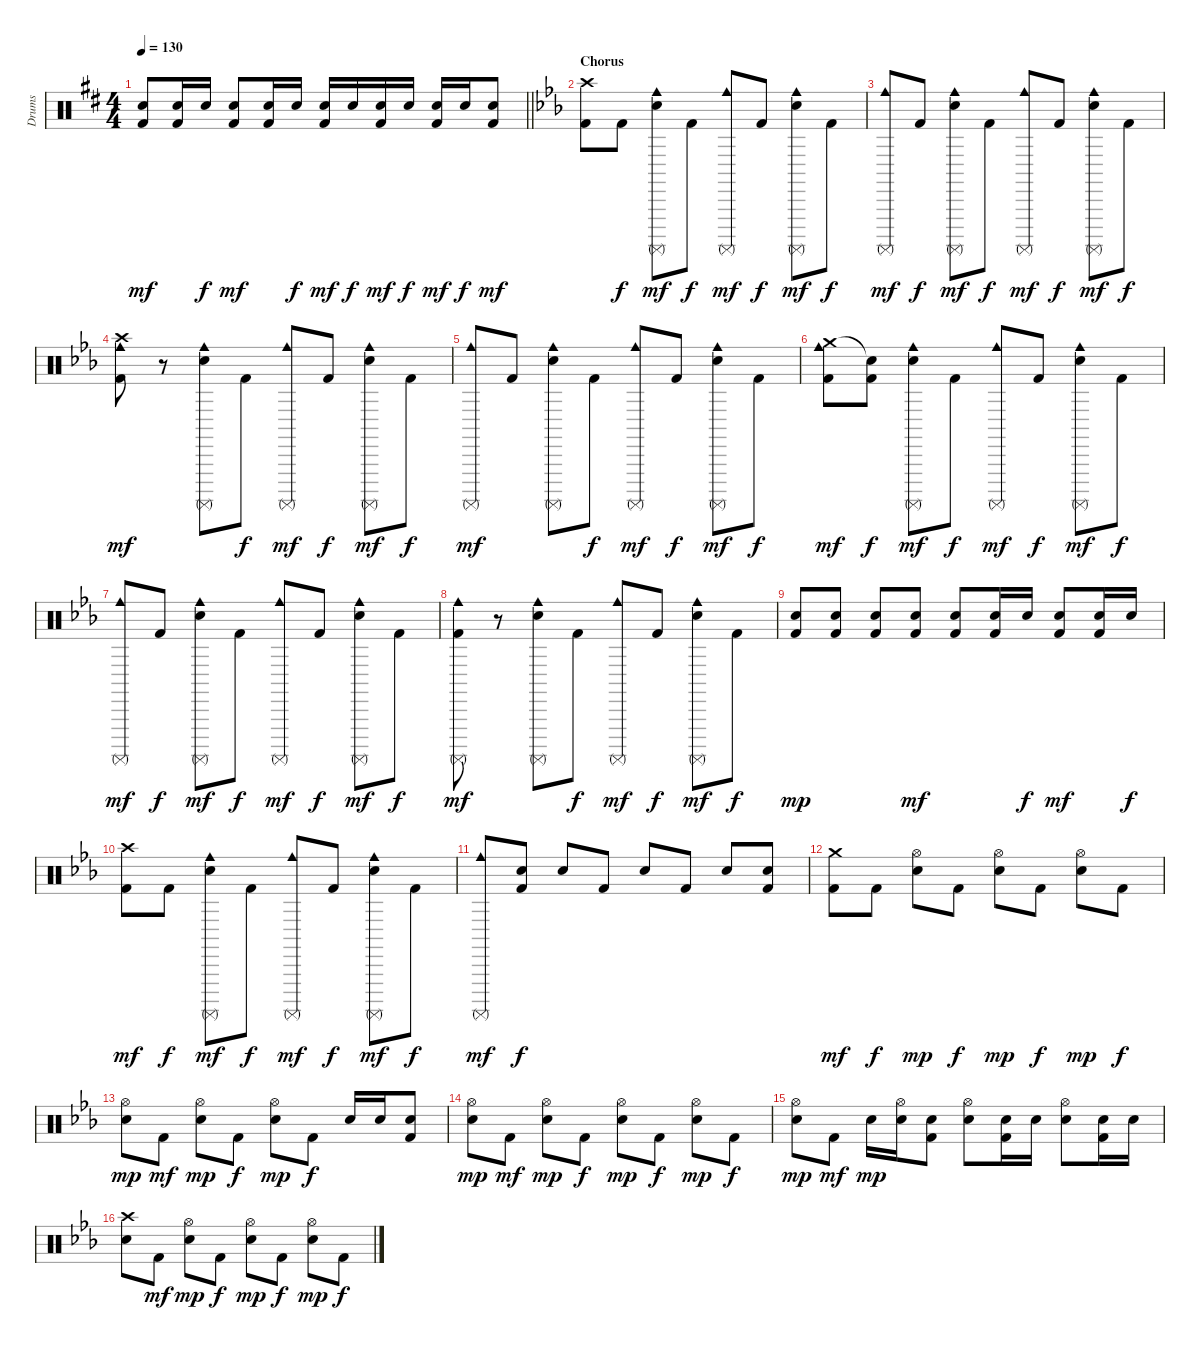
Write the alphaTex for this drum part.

\track ("Drums" "Drums") {instrument percussion}
\staff {score}
\articulation defaults
\ts (4 4)
\tempo 130
\clef neutral
\barLineRight lightlight
\ks d
("Electric Snare (hit)" "Kick (hit) 2").8{dy mf} ("Electric Snare (hit)" "Kick (hit) 2").16 "Electric Snare (hit)".16{dy f} ("Electric Snare (hit)" "Kick (hit) 2").8{dy mf} ("Electric Snare (hit)" "Kick (hit) 2").16 "Electric Snare (hit)".16{dy f} ("Electric Snare (hit)" "Kick (hit) 2").16{dy mf} "Electric Snare (hit)".16{dy f} ("Electric Snare (hit)" "Kick (hit) 2").16{dy mf} "Electric Snare (hit)".16{dy f} ("Electric Snare (hit)" "Kick (hit) 2").16{dy mf} "Electric Snare (hit)".16{dy f} ("Electric Snare (hit)" "Kick (hit) 2").8{dy mf} |
\section ("" "Chorus")
\ks eb
("Crash high (hit)" "Kick (hit) 2").8 "Kick (hit) 2".8{dy f} ("Surdo (mute)" "Cowbell medium (hit)" "Electric Snare (hit)").8{dy mf} "Kick (hit) 2".8{dy f} ("Surdo (mute)" "Cowbell medium (hit)").8{dy mf} "Kick (hit) 2".8{dy f} ("Surdo (mute)" "Cowbell medium (hit)" "Electric Snare (hit)").8{dy mf} "Kick (hit) 2".8{dy f} |
("Surdo (mute)" "Cowbell medium (hit)").8{dy mf} "Kick (hit) 2".8{dy f} ("Surdo (mute)" "Cowbell medium (hit)" "Electric Snare (hit)").8{dy mf} "Kick (hit) 2".8{dy f} ("Surdo (mute)" "Cowbell medium (hit)").8{dy mf} "Kick (hit) 2".8{dy f} ("Surdo (mute)" "Cowbell medium (hit)" "Electric Snare (hit)").8{dy mf} "Kick (hit) 2".8{dy f} |
("Crash high (hit)" "Cowbell medium (hit)" "Kick (hit) 2").8{dy mf} r.8 ("Surdo (mute)" "Cowbell medium (hit)" "Electric Snare (hit)").8 "Kick (hit) 2".8{dy f} ("Surdo (mute)" "Cowbell medium (hit)").8{dy mf} "Kick (hit) 2".8{dy f} ("Surdo (mute)" "Cowbell medium (hit)" "Electric Snare (hit)").8{dy mf} "Kick (hit) 2".8{dy f} |
("Surdo (mute)" "Cowbell medium (hit)").8{dy mf} "Kick (hit) 2".8 ("Surdo (mute)" "Cowbell medium (hit)" "Electric Snare (hit)").8 "Kick (hit) 2".8{dy f} ("Surdo (mute)" "Cowbell medium (hit)").8{dy mf} "Kick (hit) 2".8{dy f} ("Surdo (mute)" "Cowbell medium (hit)" "Electric Snare (hit)").8{dy mf} "Kick (hit) 2".8{dy f} |
("Crash medium (hit)" "Cowbell medium (hit)" "Kick (hit) 2").8{dy mf} ("Snare (hit)"{t} "Kick (hit) 2").8{dy f} ("Surdo (mute)" "Cowbell medium (hit)" "Electric Snare (hit)").8{dy mf} "Kick (hit) 2".8{dy f} ("Surdo (mute)" "Cowbell medium (hit)").8{dy mf} "Kick (hit) 2".8{dy f} ("Surdo (mute)" "Cowbell medium (hit)" "Electric Snare (hit)").8{dy mf} "Kick (hit) 2".8{dy f} |
("Surdo (mute)" "Cowbell medium (hit)").8{dy mf} "Kick (hit) 2".8{dy f} ("Surdo (mute)" "Cowbell medium (hit)" "Electric Snare (hit)").8{dy mf} "Kick (hit) 2".8{dy f} ("Surdo (mute)" "Cowbell medium (hit)").8{dy mf} "Kick (hit) 2".8{dy f} ("Surdo (mute)" "Cowbell medium (hit)" "Electric Snare (hit)").8{dy mf} "Kick (hit) 2".8{dy f} |
("Surdo (mute)" "Cowbell medium (hit)" "Kick (hit) 2").8{dy mf} r.8 ("Surdo (mute)" "Cowbell medium (hit)" "Electric Snare (hit)").8 "Kick (hit) 2".8{dy f} ("Surdo (mute)" "Cowbell medium (hit)").8{dy mf} "Kick (hit) 2".8{dy f} ("Surdo (mute)" "Cowbell medium (hit)" "Electric Snare (hit)").8{dy mf} "Kick (hit) 2".8{dy f} |
("Electric Snare (hit)" "Kick (hit) 2").8{dy mp} ("Electric Snare (hit)" "Kick (hit) 2").8 ("Electric Snare (hit)" "Kick (hit) 2").8 ("Electric Snare (hit)" "Kick (hit) 2").8{dy mf} ("Electric Snare (hit)" "Kick (hit) 2").8 ("Electric Snare (hit)" "Kick (hit) 2").16 "Electric Snare (hit)".16{dy f} ("Electric Snare (hit)" "Kick (hit) 2").8{dy mf} ("Electric Snare (hit)" "Kick (hit) 2").16 "Electric Snare (hit)".16{dy f} |
("Crash high (hit)" "Kick (hit) 2").8{dy mf} "Kick (hit) 2".8{dy f} ("Surdo (mute)" "Cowbell medium (hit)" "Electric Snare (hit)").8{dy mf} "Kick (hit) 2".8{dy f} ("Surdo (mute)" "Cowbell medium (hit)").8{dy mf} "Kick (hit) 2".8{dy f} ("Surdo (mute)" "Cowbell medium (hit)" "Electric Snare (hit)").8{dy mf} "Kick (hit) 2".8{dy f} |
("Surdo (mute)" "Cowbell medium (hit)").8{dy mf} ("Electric Snare (hit)" "Kick (hit) 2").8{dy f} "Electric Snare (hit)".8 "Kick (hit) 2".8 "Electric Snare (hit)".8 "Kick (hit) 2".8 "Electric Snare (hit)".8 ("Electric Snare (hit)" "Kick (hit) 2").8 |
("Crash medium (hit)" "Kick (hit) 2").8{dy mf} "Kick (hit) 2".8{dy f} ("Hi-Hat (open)" "Electric Snare (hit)").8{dy mp} "Kick (hit) 2".8{dy f} ("Hi-Hat (open)" "Electric Snare (hit)").8{dy mp} "Kick (hit) 2".8{dy f} ("Hi-Hat (open)" "Electric Snare (hit)").8{dy mp} "Kick (hit) 2".8{dy f} |
("Hi-Hat (open)" "Electric Snare (hit)").8{dy mp} "Kick (hit) 2".8{dy mf} ("Hi-Hat (open)" "Electric Snare (hit)").8{dy mp} "Kick (hit) 2".8{dy f} ("Hi-Hat (open)" "Electric Snare (hit)").8{dy mp} "Kick (hit) 2".8{dy f} "Electric Snare (hit)".16 "Electric Snare (hit)".16 ("Electric Snare (hit)" "Kick (hit) 2").8 |
("Hi-Hat (open)" "Electric Snare (hit)").8{dy mp} "Kick (hit) 2".8{dy mf} ("Hi-Hat (open)" "Electric Snare (hit)").8{dy mp} "Kick (hit) 2".8{dy f} ("Hi-Hat (open)" "Electric Snare (hit)").8{dy mp} "Kick (hit) 2".8{dy f} ("Hi-Hat (open)" "Electric Snare (hit)").8{dy mp} "Kick (hit) 2".8{dy f} |
("Hi-Hat (open)" "Electric Snare (hit)").8{dy mp} "Kick (hit) 2".8{dy mf} "Electric Snare (hit)".16{dy mp} ("Hi-Hat (open)" "Electric Snare (hit)").16 ("Electric Snare (hit)" "Kick (hit) 2").8 ("Hi-Hat (open)" "Electric Snare (hit)").8 ("Electric Snare (hit)" "Kick (hit) 2").16 "Electric Snare (hit)".16 ("Hi-Hat (open)" "Electric Snare (hit)").8 ("Electric Snare (hit)" "Kick (hit) 2").16 "Electric Snare (hit)".16 |
("Crash high (hit)" "Electric Snare (hit)").8 "Kick (hit) 2".8{dy mf} ("Hi-Hat (open)" "Electric Snare (hit)").8{dy mp} "Kick (hit) 2".8{dy f} ("Hi-Hat (open)" "Electric Snare (hit)").8{dy mp} "Kick (hit) 2".8{dy f} ("Hi-Hat (open)" "Electric Snare (hit)").8{dy mp} "Kick (hit) 2".8{dy f}
